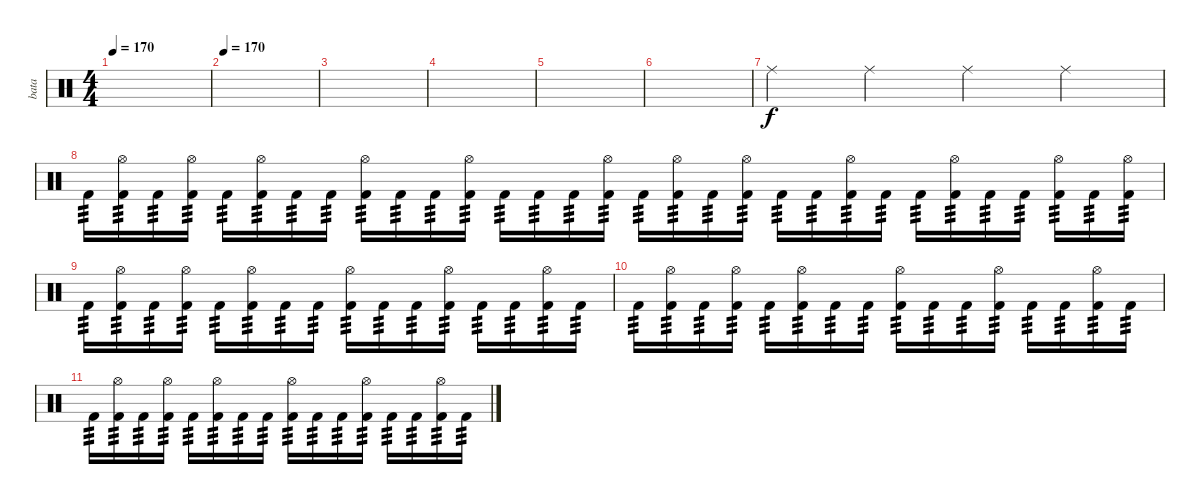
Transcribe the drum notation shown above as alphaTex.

\track ("bata" "bata") {instrument percussion}
\staff {score}
\articulation defaults
\ts (4 4)
\tempo 170
\clef neutral
\ks c
|
\tempo 170
|
|
|
|
|
"Ride (middle)".4 "Ride (middle)".4 "Ride (middle)".4 "Ride (middle)".4 |
"Kick (hit) 2".16{tp 3} ("Kick (hit) 2" "Hi-Hat (open)").16{tp 3} "Kick (hit) 2".16{tp 3} ("Kick (hit) 2" "Hi-Hat (open)").16{tp 3} "Kick (hit) 2".16{tp 3} ("Kick (hit) 2" "Hi-Hat (open)").16{tp 3} "Kick (hit) 2".16{tp 3} "Kick (hit) 2".16{tp 3} ("Kick (hit) 2" "Hi-Hat (open)").16{tp 3} "Kick (hit) 2".16{tp 3} "Kick (hit) 2".16{tp 3} ("Kick (hit) 2" "Hi-Hat (open)").16{tp 3} "Kick (hit) 2".16{tp 3} "Kick (hit) 2".16{tp 3} "Kick (hit) 2".16{tp 3} ("Kick (hit) 2" "Hi-Hat (open)").16{tp 3} "Kick (hit) 2".16{tp 3} ("Kick (hit) 2" "Hi-Hat (open)").16{tp 3} "Kick (hit) 2".16{tp 3} ("Kick (hit) 2" "Hi-Hat (open)").16{tp 3} "Kick (hit) 2".16{tp 3} "Kick (hit) 2".16{tp 3} ("Kick (hit) 2" "Hi-Hat (open)").16{tp 3} "Kick (hit) 2".16{tp 3} "Kick (hit) 2".16{tp 3} ("Kick (hit) 2" "Hi-Hat (open)").16{tp 3} "Kick (hit) 2".16{tp 3} "Kick (hit) 2".16{tp 3} ("Kick (hit) 2" "Hi-Hat (open)").16{tp 3} "Kick (hit) 2".16{tp 3} ("Kick (hit) 2" "Hi-Hat (open)").16{tp 3} |
"Kick (hit) 2".16{tp 3} ("Kick (hit) 2" "Hi-Hat (open)").16{tp 3} "Kick (hit) 2".16{tp 3} ("Kick (hit) 2" "Hi-Hat (open)").16{tp 3} "Kick (hit) 2".16{tp 3} ("Kick (hit) 2" "Hi-Hat (open)").16{tp 3} "Kick (hit) 2".16{tp 3} "Kick (hit) 2".16{tp 3} ("Kick (hit) 2" "Hi-Hat (open)").16{tp 3} "Kick (hit) 2".16{tp 3} "Kick (hit) 2".16{tp 3} ("Kick (hit) 2" "Hi-Hat (open)").16{tp 3} "Kick (hit) 2".16{tp 3} "Kick (hit) 2".16{tp 3} ("Kick (hit) 2" "Hi-Hat (open)").16{tp 3} "Kick (hit) 2".16{tp 3} |
"Kick (hit) 2".16{tp 3} ("Kick (hit) 2" "Hi-Hat (open)").16{tp 3} "Kick (hit) 2".16{tp 3} ("Kick (hit) 2" "Hi-Hat (open)").16{tp 3} "Kick (hit) 2".16{tp 3} ("Kick (hit) 2" "Hi-Hat (open)").16{tp 3} "Kick (hit) 2".16{tp 3} "Kick (hit) 2".16{tp 3} ("Kick (hit) 2" "Hi-Hat (open)").16{tp 3} "Kick (hit) 2".16{tp 3} "Kick (hit) 2".16{tp 3} ("Kick (hit) 2" "Hi-Hat (open)").16{tp 3} "Kick (hit) 2".16{tp 3} "Kick (hit) 2".16{tp 3} ("Kick (hit) 2" "Hi-Hat (open)").16{tp 3} "Kick (hit) 2".16{tp 3} |
"Kick (hit) 2".16{tp 3} ("Kick (hit) 2" "Hi-Hat (open)").16{tp 3} "Kick (hit) 2".16{tp 3} ("Kick (hit) 2" "Hi-Hat (open)").16{tp 3} "Kick (hit) 2".16{tp 3} ("Kick (hit) 2" "Hi-Hat (open)").16{tp 3} "Kick (hit) 2".16{tp 3} "Kick (hit) 2".16{tp 3} ("Kick (hit) 2" "Hi-Hat (open)").16{tp 3} "Kick (hit) 2".16{tp 3} "Kick (hit) 2".16{tp 3} ("Kick (hit) 2" "Hi-Hat (open)").16{tp 3} "Kick (hit) 2".16{tp 3} "Kick (hit) 2".16{tp 3} ("Kick (hit) 2" "Hi-Hat (open)").16{tp 3} "Kick (hit) 2".16{tp 3}
